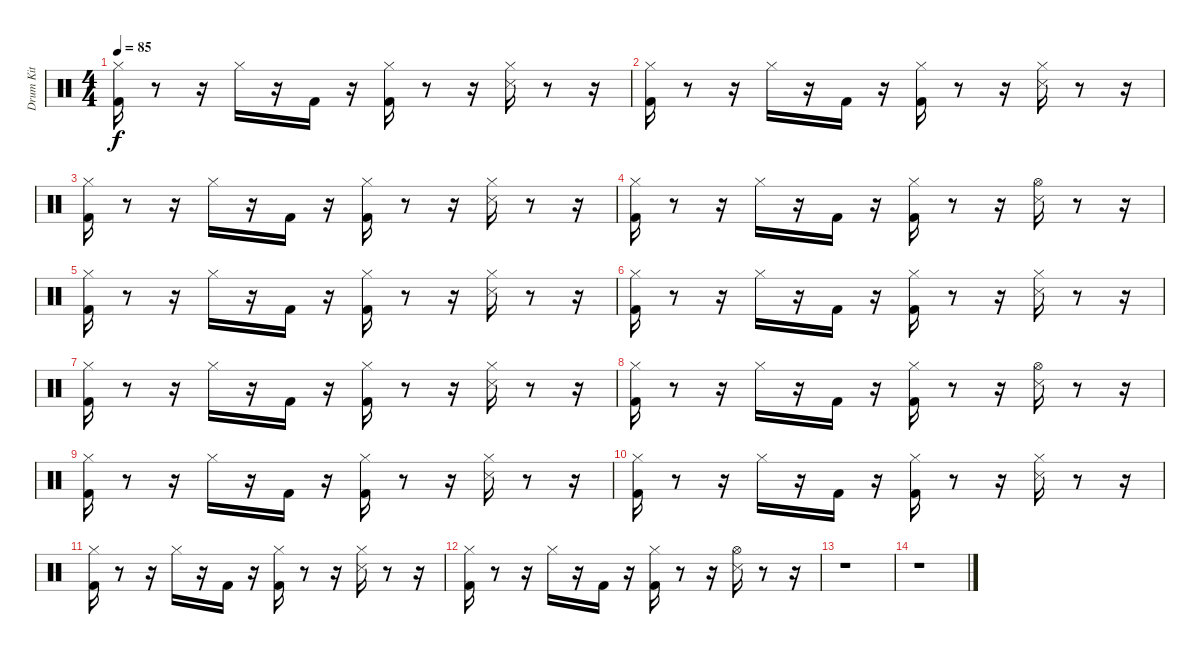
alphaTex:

\track ("Drum Kit" "Drum Kit") {instrument percussion}
\staff {score}
\articulation defaults
\ts (4 4)
\tempo 85
\clef neutral
\ks c
("Kick (hit) 2" "Hi-Hat (closed)").16{dy f} r.8 r.16 "Hi-Hat (closed)".16 r.16 "Kick (hit) 2".16 r.16 ("Kick (hit) 2" "Hi-Hat (closed)").16 r.8 r.16 ("Snare (side stick) 3" "Hi-Hat (closed)").16 r.8 r.16 |
("Kick (hit) 2" "Hi-Hat (closed)").16 r.8 r.16 "Hi-Hat (closed)".16 r.16 "Kick (hit) 2".16 r.16 ("Kick (hit) 2" "Hi-Hat (closed)").16 r.8 r.16 ("Snare (side stick) 3" "Hi-Hat (closed)").16 r.8 r.16 |
("Kick (hit) 2" "Hi-Hat (closed)").16 r.8 r.16 "Hi-Hat (closed)".16 r.16 "Kick (hit) 2".16 r.16 ("Kick (hit) 2" "Hi-Hat (closed)").16 r.8 r.16 ("Snare (side stick) 3" "Hi-Hat (closed)").16 r.8 r.16 |
("Kick (hit) 2" "Hi-Hat (closed)").16 r.8 r.16 "Hi-Hat (closed)".16 r.16 "Kick (hit) 2".16 r.16 ("Kick (hit) 2" "Hi-Hat (closed)").16 r.8 r.16 ("Snare (side stick) 3" "Hi-Hat (open)").16 r.8 r.16 |
("Kick (hit) 2" "Hi-Hat (closed)").16 r.8 r.16 "Hi-Hat (closed)".16 r.16 "Kick (hit) 2".16 r.16 ("Kick (hit) 2" "Hi-Hat (closed)").16 r.8 r.16 ("Snare (side stick) 3" "Hi-Hat (closed)").16 r.8 r.16 |
("Kick (hit) 2" "Hi-Hat (closed)").16 r.8 r.16 "Hi-Hat (closed)".16 r.16 "Kick (hit) 2".16 r.16 ("Kick (hit) 2" "Hi-Hat (closed)").16 r.8 r.16 ("Snare (side stick) 3" "Hi-Hat (closed)").16 r.8 r.16 |
("Kick (hit) 2" "Hi-Hat (closed)").16 r.8 r.16 "Hi-Hat (closed)".16 r.16 "Kick (hit) 2".16 r.16 ("Kick (hit) 2" "Hi-Hat (closed)").16 r.8 r.16 ("Snare (side stick) 3" "Hi-Hat (closed)").16 r.8 r.16 |
("Kick (hit) 2" "Hi-Hat (closed)").16 r.8 r.16 "Hi-Hat (closed)".16 r.16 "Kick (hit) 2".16 r.16 ("Kick (hit) 2" "Hi-Hat (closed)").16 r.8 r.16 ("Snare (side stick) 3" "Hi-Hat (open)").16 r.8 r.16 |
("Kick (hit) 2" "Hi-Hat (closed)").16 r.8 r.16 "Hi-Hat (closed)".16 r.16 "Kick (hit) 2".16 r.16 ("Kick (hit) 2" "Hi-Hat (closed)").16 r.8 r.16 ("Snare (side stick) 3" "Hi-Hat (closed)").16 r.8 r.16 |
("Kick (hit) 2" "Hi-Hat (closed)").16 r.8 r.16 "Hi-Hat (closed)".16 r.16 "Kick (hit) 2".16 r.16 ("Kick (hit) 2" "Hi-Hat (closed)").16 r.8 r.16 ("Snare (side stick) 3" "Hi-Hat (closed)").16 r.8 r.16 |
("Kick (hit) 2" "Hi-Hat (closed)").16 r.8 r.16 "Hi-Hat (closed)".16 r.16 "Kick (hit) 2".16 r.16 ("Kick (hit) 2" "Hi-Hat (closed)").16 r.8 r.16 ("Snare (side stick) 3" "Hi-Hat (closed)").16 r.8 r.16 |
("Kick (hit) 2" "Hi-Hat (closed)").16 r.8 r.16 "Hi-Hat (closed)".16 r.16 "Kick (hit) 2".16 r.16 ("Kick (hit) 2" "Hi-Hat (closed)").16 r.8 r.16 ("Snare (side stick) 3" "Hi-Hat (open)").16 r.8 r.16 |
r.1 |
r.1
